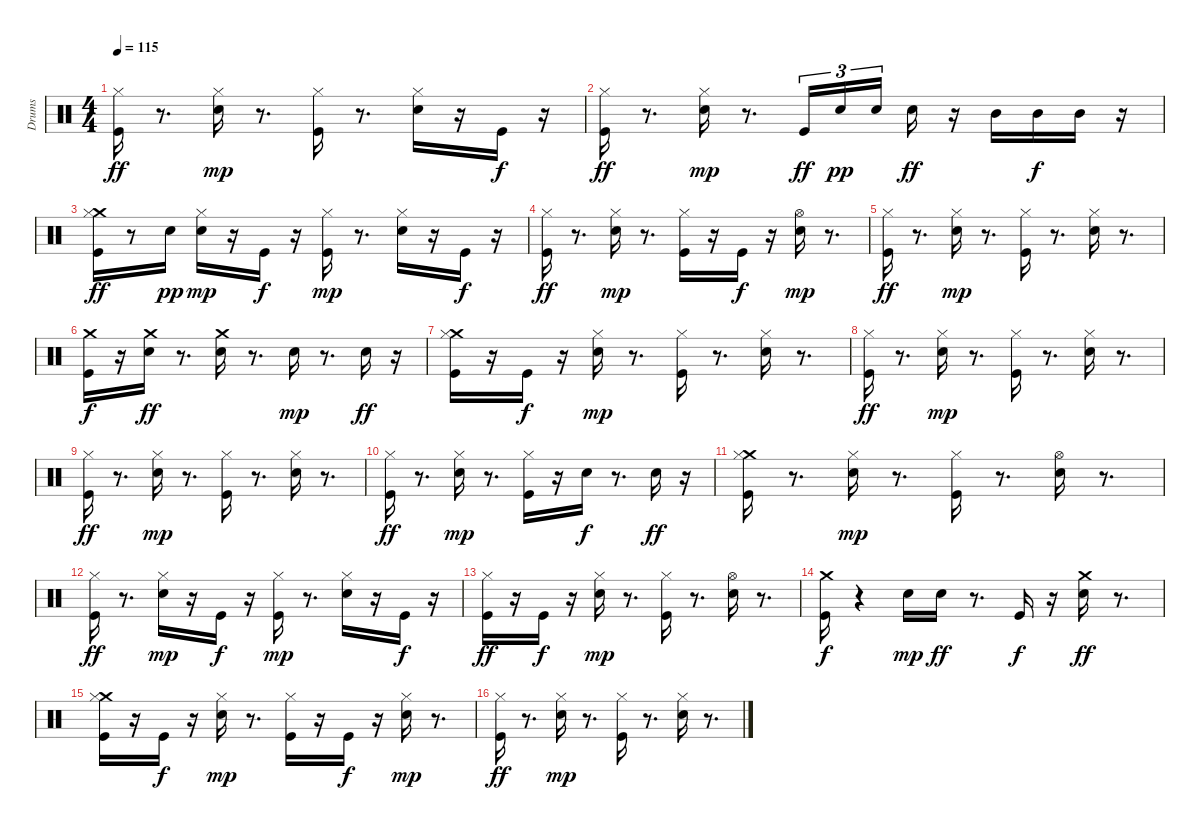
\track ("Drums" "Drums") {instrument percussion}
\staff {score}
\articulation defaults
\ts (4 4)
\tempo 115
\clef neutral
\ks c
("Kick (hit)" "Hi-Hat (closed)").16{dy ff} r.8{d} ("Electric Snare (hit)" "Hi-Hat (closed)").16{dy mp} r.8{d} ("Kick (hit)" "Hi-Hat (closed)").16 r.8{d} ("Electric Snare (hit)" "Hi-Hat (closed)").16 r.16 "Kick (hit)".16{dy f} r.16 |
("Kick (hit)" "Hi-Hat (closed)").16{dy ff} r.8{d} ("Electric Snare (hit)" "Hi-Hat (closed)").16{dy mp} r.8{d} "Kick (hit)".16{tu (3 2) dy ff} "Electric Snare (hit)".16{tu (3 2) dy pp} "Electric Snare (hit)".16{tu (3 2) beam splitsecondary} "Electric Snare (hit)".16{dy ff} r.16 "Mid Tom (hit)".16 "Mid Tom (hit)".16{dy f} "Mid Tom (hit)".16 r.16 |
("Crash medium (hit)" "Kick (hit)" "Hi-Hat (closed)").16{dy ff} r.8 "Electric Snare (hit)".16{dy pp} ("Electric Snare (hit)" "Hi-Hat (closed)").16{dy mp} r.16 "Kick (hit)".16{dy f} r.16 ("Kick (hit)" "Hi-Hat (closed)").16{dy mp} r.8{d} ("Electric Snare (hit)" "Hi-Hat (closed)").16 r.16 "Kick (hit)".16{dy f} r.16 |
("Kick (hit)" "Hi-Hat (closed)").16{dy ff} r.8{d} ("Electric Snare (hit)" "Hi-Hat (closed)").16{dy mp} r.8{d} ("Kick (hit)" "Hi-Hat (closed)").16 r.16 "Kick (hit)".16{dy f} r.16 ("Electric Snare (hit)" "Hi-Hat (open)").16{dy mp} r.8{d} |
("Kick (hit)" "Hi-Hat (closed)").16{dy ff} r.8{d} ("Electric Snare (hit)" "Hi-Hat (closed)").16{dy mp} r.8{d} ("Kick (hit)" "Hi-Hat (closed)").16 r.8{d} ("Electric Snare (hit)" "Hi-Hat (closed)").16 r.8{d} |
("Kick (hit)" "Crash medium (hit)").16{dy f} r.16 ("Electric Snare (hit)" "Crash medium (hit)").16{dy ff} r.8{d} ("Electric Snare (hit)" "Crash medium (hit)").16 r.8{d} "Electric Snare (hit)".16{dy mp} r.8{d} "Electric Snare (hit)".16{dy ff} r.16 |
("Crash medium (hit)" "Kick (hit)" "Hi-Hat (closed)").16 r.16 "Kick (hit)".16{dy f} r.16 ("Electric Snare (hit)" "Hi-Hat (closed)").16{dy mp} r.8{d} ("Kick (hit)" "Hi-Hat (closed)").16 r.8{d} ("Electric Snare (hit)" "Hi-Hat (closed)").16 r.8{d} |
("Kick (hit)" "Hi-Hat (closed)").16{dy ff} r.8{d} ("Electric Snare (hit)" "Hi-Hat (closed)").16{dy mp} r.8{d} ("Kick (hit)" "Hi-Hat (closed)").16 r.8{d} ("Electric Snare (hit)" "Hi-Hat (closed)").16 r.8{d} |
("Kick (hit)" "Hi-Hat (closed)").16{dy ff} r.8{d} ("Electric Snare (hit)" "Hi-Hat (closed)").16{dy mp} r.8{d} ("Kick (hit)" "Hi-Hat (closed)").16 r.8{d} ("Electric Snare (hit)" "Hi-Hat (closed)").16 r.8{d} |
("Kick (hit)" "Hi-Hat (closed)").16{dy ff} r.8{d} ("Electric Snare (hit)" "Hi-Hat (closed)").16{dy mp} r.8{d} ("Kick (hit)" "Hi-Hat (closed)").16 r.16 "Electric Snare (hit)".16{dy f} r.8{d} "Electric Snare (hit)".16{dy ff} r.16 |
("Crash medium (hit)" "Kick (hit)" "Hi-Hat (closed)").16 r.8{d} ("Electric Snare (hit)" "Hi-Hat (closed)").16{dy mp} r.8{d} ("Kick (hit)" "Hi-Hat (closed)").16 r.8{d} ("Electric Snare (hit)" "Hi-Hat (open)").16 r.8{d} |
("Kick (hit)" "Hi-Hat (closed)").16{dy ff} r.8{d} ("Electric Snare (hit)" "Hi-Hat (closed)").16{dy mp} r.16 "Kick (hit)".16{dy f} r.16 ("Kick (hit)" "Hi-Hat (closed)").16{dy mp} r.8{d} ("Electric Snare (hit)" "Hi-Hat (closed)").16 r.16 "Kick (hit)".16{dy f} r.16 |
("Kick (hit)" "Hi-Hat (closed)").16{dy ff} r.16 "Kick (hit)".16{dy f} r.16 ("Electric Snare (hit)" "Hi-Hat (closed)").16{dy mp} r.8{d} ("Kick (hit)" "Hi-Hat (closed)").16 r.8{d} ("Electric Snare (hit)" "Hi-Hat (open)").16 r.8{d} |
("Kick (hit)" "Crash medium (hit)").16{dy f} r.4 "Electric Snare (hit)".16{dy mp} "Electric Snare (hit)".16{dy ff} r.8{d} "Kick (hit)".16{dy f} r.16 ("Electric Snare (hit)" "Crash medium (hit)").16{dy ff} r.8{d} |
("Crash medium (hit)" "Kick (hit)" "Hi-Hat (closed)").16 r.16 "Kick (hit)".16{dy f} r.16 ("Electric Snare (hit)" "Hi-Hat (closed)").16{dy mp} r.8{d} ("Kick (hit)" "Hi-Hat (closed)").16 r.16 "Kick (hit)".16{dy f} r.16 ("Electric Snare (hit)" "Hi-Hat (closed)").16{dy mp} r.8{d} |
("Kick (hit)" "Hi-Hat (closed)").16{dy ff} r.8{d} ("Electric Snare (hit)" "Hi-Hat (closed)").16{dy mp} r.8{d} ("Kick (hit)" "Hi-Hat (closed)").16 r.8{d} ("Electric Snare (hit)" "Hi-Hat (closed)").16 r.8{d}
